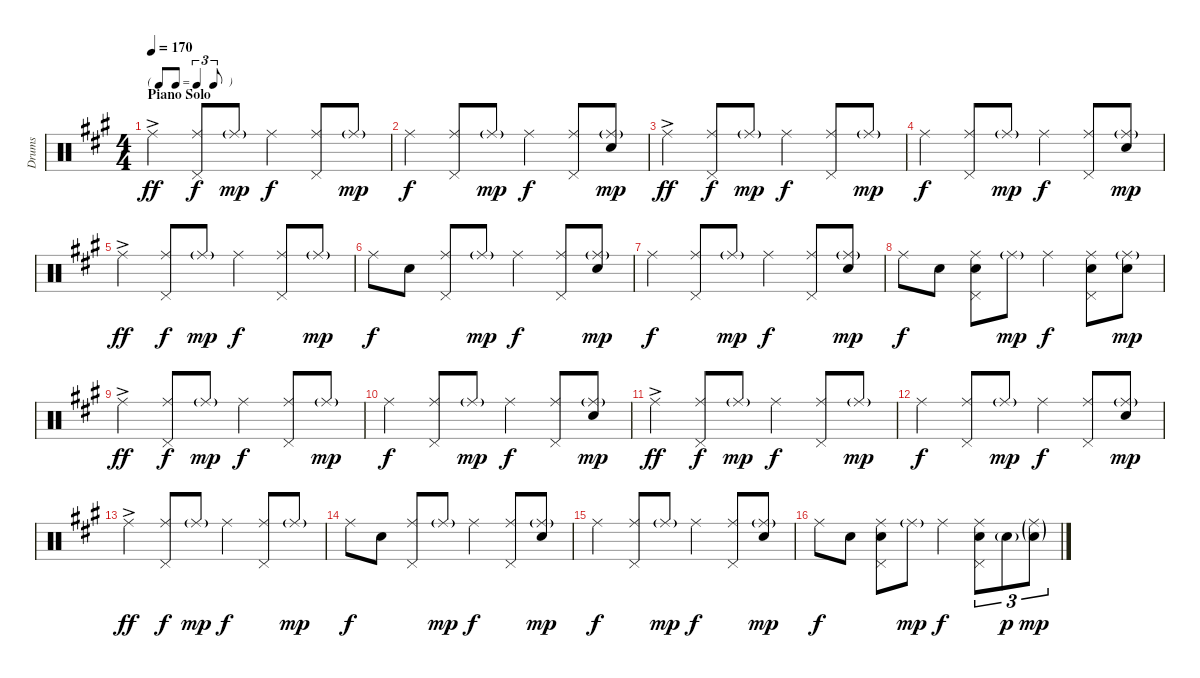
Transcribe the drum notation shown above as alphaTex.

\track ("Drums" "Drums") {instrument percussion}
\staff {score}
\articulation defaults
\ts (4 4)
\tf triplet8th
\section ("" "Piano Solo")
\tempo 170
\clef neutral
\ks a "Ride (middle)"{ac}.4{dy ff}
("Pedal Hi-Hat (hit)" "Ride (middle)").8{dy f} "Ride (middle)"{g}.8{dy mp} "Ride (middle)".4{dy f} ("Pedal Hi-Hat (hit)" "Ride (middle)").8 "Ride (middle)"{g}.8{dy mp} |
"Ride (middle)".4{dy f} ("Pedal Hi-Hat (hit)" "Ride (middle)").8 "Ride (middle)"{g}.8{dy mp} "Ride (middle)".4{dy f} ("Pedal Hi-Hat (hit)" "Ride (middle)").8 ("Snare (hit) 2" "Ride (middle)"{g}).8{dy mp} |
"Ride (middle)"{ac}.4{dy ff} ("Pedal Hi-Hat (hit)" "Ride (middle)").8{dy f} "Ride (middle)"{g}.8{dy mp} "Ride (middle)".4{dy f} ("Pedal Hi-Hat (hit)" "Ride (middle)").8 "Ride (middle)"{g}.8{dy mp} |
"Ride (middle)".4{dy f} ("Pedal Hi-Hat (hit)" "Ride (middle)").8 "Ride (middle)"{g}.8{dy mp} "Ride (middle)".4{dy f} ("Pedal Hi-Hat (hit)" "Ride (middle)").8 ("Snare (hit) 2" "Ride (middle)"{g}).8{dy mp} |
"Ride (middle)"{ac}.4{dy ff} ("Pedal Hi-Hat (hit)" "Ride (middle)").8{dy f} "Ride (middle)"{g}.8{dy mp} "Ride (middle)".4{dy f} ("Pedal Hi-Hat (hit)" "Ride (middle)").8 "Ride (middle)"{g}.8{dy mp} |
"Ride (middle)".8{dy f} "Snare (hit) 2".8 ("Pedal Hi-Hat (hit)" "Ride (middle)").8 "Ride (middle)"{g}.8{dy mp} "Ride (middle)".4{dy f} ("Pedal Hi-Hat (hit)" "Ride (middle)").8 ("Snare (hit) 2" "Ride (middle)"{g}).8{dy mp} |
"Ride (middle)".4{dy f} ("Pedal Hi-Hat (hit)" "Ride (middle)").8 "Ride (middle)"{g}.8{dy mp} "Ride (middle)".4{dy f} ("Pedal Hi-Hat (hit)" "Ride (middle)").8 ("Snare (hit) 2" "Ride (middle)"{g}).8{dy mp} |
"Ride (middle)".8{dy f} "Snare (hit) 2".8 ("Snare (hit) 2" "Pedal Hi-Hat (hit)" "Ride (middle)").8 "Ride (middle)"{g}.8{dy mp} "Ride (middle)".4{dy f} ("Snare (hit) 2" "Pedal Hi-Hat (hit)" "Ride (middle)").8 ("Snare (hit) 2" "Ride (middle)"{g}).8{dy mp} |
"Ride (middle)"{ac}.4{dy ff} ("Pedal Hi-Hat (hit)" "Ride (middle)").8{dy f} "Ride (middle)"{g}.8{dy mp} "Ride (middle)".4{dy f} ("Pedal Hi-Hat (hit)" "Ride (middle)").8 "Ride (middle)"{g}.8{dy mp} |
"Ride (middle)".4{dy f} ("Pedal Hi-Hat (hit)" "Ride (middle)").8 "Ride (middle)"{g}.8{dy mp} "Ride (middle)".4{dy f} ("Pedal Hi-Hat (hit)" "Ride (middle)").8 ("Snare (hit) 2" "Ride (middle)"{g}).8{dy mp} |
"Ride (middle)"{ac}.4{dy ff} ("Pedal Hi-Hat (hit)" "Ride (middle)").8{dy f} "Ride (middle)"{g}.8{dy mp} "Ride (middle)".4{dy f} ("Pedal Hi-Hat (hit)" "Ride (middle)").8 "Ride (middle)"{g}.8{dy mp} |
"Ride (middle)".4{dy f} ("Pedal Hi-Hat (hit)" "Ride (middle)").8 "Ride (middle)"{g}.8{dy mp} "Ride (middle)".4{dy f} ("Pedal Hi-Hat (hit)" "Ride (middle)").8 ("Snare (hit) 2" "Ride (middle)"{g}).8{dy mp} |
"Ride (middle)"{ac}.4{dy ff} ("Pedal Hi-Hat (hit)" "Ride (middle)").8{dy f} "Ride (middle)"{g}.8{dy mp} "Ride (middle)".4{dy f} ("Pedal Hi-Hat (hit)" "Ride (middle)").8 "Ride (middle)"{g}.8{dy mp} |
"Ride (middle)".8{dy f} "Snare (hit) 2".8 ("Pedal Hi-Hat (hit)" "Ride (middle)").8 "Ride (middle)"{g}.8{dy mp} "Ride (middle)".4{dy f} ("Pedal Hi-Hat (hit)" "Ride (middle)").8 ("Snare (hit) 2" "Ride (middle)"{g}).8{dy mp} |
"Ride (middle)".4{dy f} ("Pedal Hi-Hat (hit)" "Ride (middle)").8 "Ride (middle)"{g}.8{dy mp} "Ride (middle)".4{dy f} ("Pedal Hi-Hat (hit)" "Ride (middle)").8 ("Snare (hit) 2" "Ride (middle)"{g}).8{dy mp} |
"Ride (middle)".8{dy f} "Snare (hit) 2".8 ("Snare (hit) 2" "Pedal Hi-Hat (hit)" "Ride (middle)").8 "Ride (middle)"{g}.8{dy mp} "Ride (middle)".4{dy f} ("Snare (hit) 2" "Pedal Hi-Hat (hit)" "Ride (middle)").8{tu (3 2)} "Snare (hit) 2"{g}.8{tu (3 2) dy p} ("Snare (hit) 2"{g} "Ride (middle)"{g}).8{tu (3 2) dy mp}
